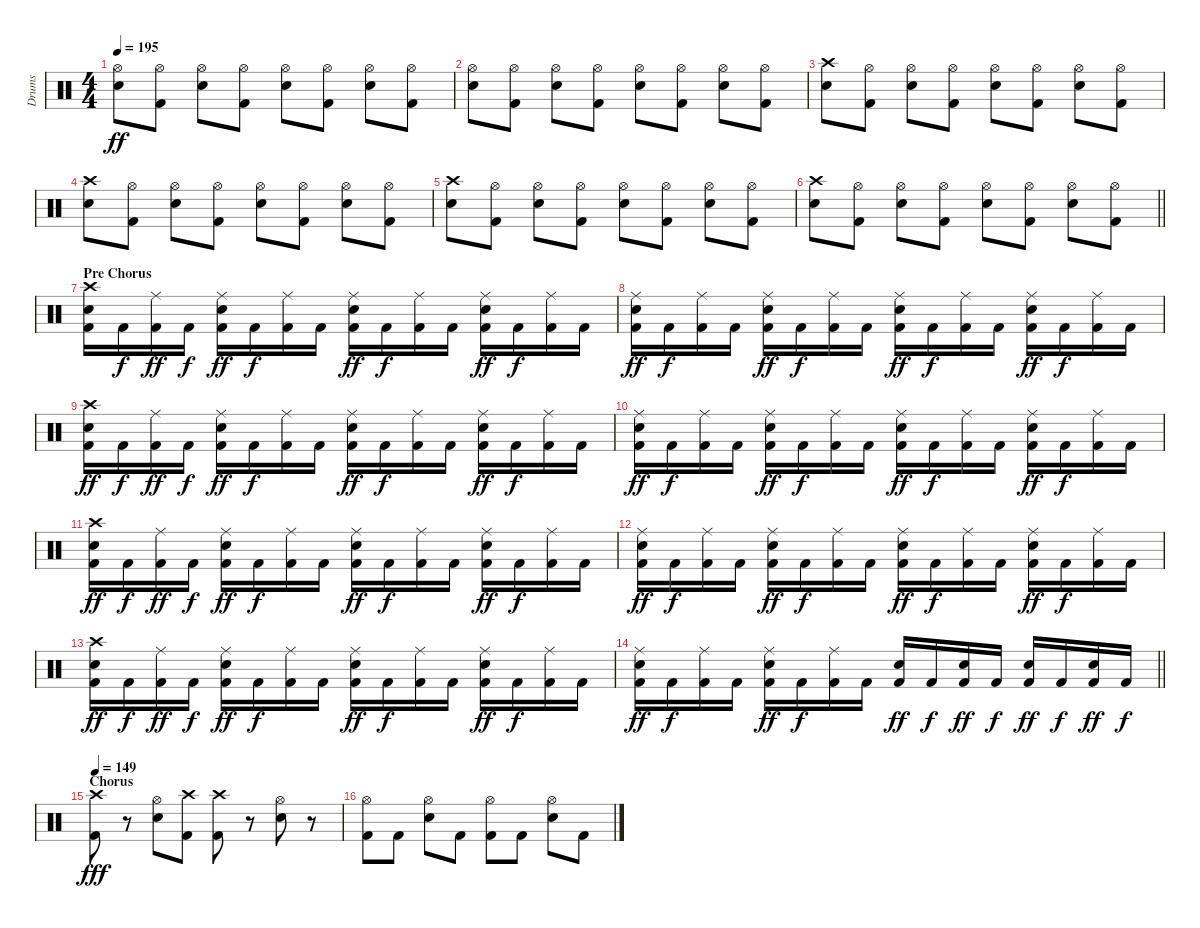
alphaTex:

\track ("Drums" "Drums") {instrument percussion}
\staff {score}
\articulation defaults
\ts (4 4)
\tempo 195
\clef neutral
\ks c
("Hi-Hat (open)" "Snare (hit) 2").8{dy ff} ("Hi-Hat (open)" "Kick (hit) 2").8 ("Hi-Hat (open)" "Snare (hit) 2").8 ("Hi-Hat (open)" "Kick (hit) 2").8 ("Hi-Hat (open)" "Snare (hit) 2").8 ("Hi-Hat (open)" "Kick (hit) 2").8 ("Hi-Hat (open)" "Snare (hit) 2").8 ("Hi-Hat (open)" "Kick (hit) 2").8 |
("Hi-Hat (open)" "Snare (hit) 2").8 ("Hi-Hat (open)" "Kick (hit) 2").8 ("Hi-Hat (open)" "Snare (hit) 2").8 ("Hi-Hat (open)" "Kick (hit) 2").8 ("Hi-Hat (open)" "Snare (hit) 2").8 ("Hi-Hat (open)" "Kick (hit) 2").8 ("Hi-Hat (open)" "Snare (hit) 2").8 ("Hi-Hat (open)" "Kick (hit) 2").8 |
("Crash high (hit)" "Snare (hit) 2").8 ("Hi-Hat (open)" "Kick (hit) 2").8 ("Hi-Hat (open)" "Snare (hit) 2").8 ("Hi-Hat (open)" "Kick (hit) 2").8 ("Hi-Hat (open)" "Snare (hit) 2").8 ("Hi-Hat (open)" "Kick (hit) 2").8 ("Hi-Hat (open)" "Snare (hit) 2").8 ("Hi-Hat (open)" "Kick (hit) 2").8 |
("Crash high (hit)" "Snare (hit) 2").8 ("Hi-Hat (open)" "Kick (hit) 2").8 ("Hi-Hat (open)" "Snare (hit) 2").8 ("Hi-Hat (open)" "Kick (hit) 2").8 ("Hi-Hat (open)" "Snare (hit) 2").8 ("Hi-Hat (open)" "Kick (hit) 2").8 ("Hi-Hat (open)" "Snare (hit) 2").8 ("Hi-Hat (open)" "Kick (hit) 2").8 |
("Crash high (hit)" "Snare (hit) 2").8 ("Hi-Hat (open)" "Kick (hit) 2").8 ("Hi-Hat (open)" "Snare (hit) 2").8 ("Hi-Hat (open)" "Kick (hit) 2").8 ("Hi-Hat (open)" "Snare (hit) 2").8 ("Hi-Hat (open)" "Kick (hit) 2").8 ("Hi-Hat (open)" "Snare (hit) 2").8 ("Hi-Hat (open)" "Kick (hit) 2").8 |
\barLineRight lightlight
("Crash high (hit)" "Snare (hit) 2").8 ("Hi-Hat (open)" "Kick (hit) 2").8 ("Hi-Hat (open)" "Snare (hit) 2").8 ("Hi-Hat (open)" "Kick (hit) 2").8 ("Hi-Hat (open)" "Snare (hit) 2").8 ("Hi-Hat (open)" "Kick (hit) 2").8 ("Hi-Hat (open)" "Snare (hit) 2").8 ("Hi-Hat (open)" "Kick (hit) 2").8 |
\section ("" "Pre Chorus")
("Crash high (hit)" "Snare (hit) 2" "Kick (hit) 2").16 "Kick (hit) 2".16{dy f} ("Ride (middle)" "Kick (hit) 2").16{dy ff} "Kick (hit) 2".16{dy f} ("Ride (middle)" "Snare (hit) 2" "Kick (hit) 2").16{dy ff} "Kick (hit) 2".16{dy f} ("Ride (middle)" "Kick (hit) 2").16 "Kick (hit) 2".16 ("Ride (middle)" "Snare (hit) 2" "Kick (hit) 2").16{dy ff} "Kick (hit) 2".16{dy f} ("Ride (middle)" "Kick (hit) 2").16 "Kick (hit) 2".16 ("Ride (middle)" "Snare (hit) 2" "Kick (hit) 2").16{dy ff} "Kick (hit) 2".16{dy f} ("Ride (middle)" "Kick (hit) 2").16 "Kick (hit) 2".16 |
("Ride (middle)" "Snare (hit) 2" "Kick (hit) 2").16{dy ff} "Kick (hit) 2".16{dy f} ("Ride (middle)" "Kick (hit) 2").16 "Kick (hit) 2".16 ("Ride (middle)" "Snare (hit) 2" "Kick (hit) 2").16{dy ff} "Kick (hit) 2".16{dy f} ("Ride (middle)" "Kick (hit) 2").16 "Kick (hit) 2".16 ("Ride (middle)" "Snare (hit) 2" "Kick (hit) 2").16{dy ff} "Kick (hit) 2".16{dy f} ("Ride (middle)" "Kick (hit) 2").16 "Kick (hit) 2".16 ("Ride (middle)" "Snare (hit) 2" "Kick (hit) 2").16{dy ff} "Kick (hit) 2".16{dy f} ("Ride (middle)" "Kick (hit) 2").16 "Kick (hit) 2".16 |
("Crash high (hit)" "Snare (hit) 2" "Kick (hit) 2").16{dy ff} "Kick (hit) 2".16{dy f} ("Ride (middle)" "Kick (hit) 2").16{dy ff} "Kick (hit) 2".16{dy f} ("Ride (middle)" "Snare (hit) 2" "Kick (hit) 2").16{dy ff} "Kick (hit) 2".16{dy f} ("Ride (middle)" "Kick (hit) 2").16 "Kick (hit) 2".16 ("Ride (middle)" "Snare (hit) 2" "Kick (hit) 2").16{dy ff} "Kick (hit) 2".16{dy f} ("Ride (middle)" "Kick (hit) 2").16 "Kick (hit) 2".16 ("Ride (middle)" "Snare (hit) 2" "Kick (hit) 2").16{dy ff} "Kick (hit) 2".16{dy f} ("Ride (middle)" "Kick (hit) 2").16 "Kick (hit) 2".16 |
("Ride (middle)" "Snare (hit) 2" "Kick (hit) 2").16{dy ff} "Kick (hit) 2".16{dy f} ("Ride (middle)" "Kick (hit) 2").16 "Kick (hit) 2".16 ("Ride (middle)" "Snare (hit) 2" "Kick (hit) 2").16{dy ff} "Kick (hit) 2".16{dy f} ("Ride (middle)" "Kick (hit) 2").16 "Kick (hit) 2".16 ("Ride (middle)" "Snare (hit) 2" "Kick (hit) 2").16{dy ff} "Kick (hit) 2".16{dy f} ("Ride (middle)" "Kick (hit) 2").16 "Kick (hit) 2".16 ("Ride (middle)" "Snare (hit) 2" "Kick (hit) 2").16{dy ff} "Kick (hit) 2".16{dy f} ("Ride (middle)" "Kick (hit) 2").16 "Kick (hit) 2".16 |
("Crash high (hit)" "Snare (hit) 2" "Kick (hit) 2").16{dy ff} "Kick (hit) 2".16{dy f} ("Ride (middle)" "Kick (hit) 2").16{dy ff} "Kick (hit) 2".16{dy f} ("Ride (middle)" "Snare (hit) 2" "Kick (hit) 2").16{dy ff} "Kick (hit) 2".16{dy f} ("Ride (middle)" "Kick (hit) 2").16 "Kick (hit) 2".16 ("Ride (middle)" "Snare (hit) 2" "Kick (hit) 2").16{dy ff} "Kick (hit) 2".16{dy f} ("Ride (middle)" "Kick (hit) 2").16 "Kick (hit) 2".16 ("Ride (middle)" "Snare (hit) 2" "Kick (hit) 2").16{dy ff} "Kick (hit) 2".16{dy f} ("Ride (middle)" "Kick (hit) 2").16 "Kick (hit) 2".16 |
("Ride (middle)" "Snare (hit) 2" "Kick (hit) 2").16{dy ff} "Kick (hit) 2".16{dy f} ("Ride (middle)" "Kick (hit) 2").16 "Kick (hit) 2".16 ("Ride (middle)" "Snare (hit) 2" "Kick (hit) 2").16{dy ff} "Kick (hit) 2".16{dy f} ("Ride (middle)" "Kick (hit) 2").16 "Kick (hit) 2".16 ("Ride (middle)" "Snare (hit) 2" "Kick (hit) 2").16{dy ff} "Kick (hit) 2".16{dy f} ("Ride (middle)" "Kick (hit) 2").16 "Kick (hit) 2".16 ("Ride (middle)" "Snare (hit) 2" "Kick (hit) 2").16{dy ff} "Kick (hit) 2".16{dy f} ("Ride (middle)" "Kick (hit) 2").16 "Kick (hit) 2".16 |
("Crash high (hit)" "Snare (hit) 2" "Kick (hit) 2").16{dy ff} "Kick (hit) 2".16{dy f} ("Ride (middle)" "Kick (hit) 2").16{dy ff} "Kick (hit) 2".16{dy f} ("Ride (middle)" "Snare (hit) 2" "Kick (hit) 2").16{dy ff} "Kick (hit) 2".16{dy f} ("Ride (middle)" "Kick (hit) 2").16 "Kick (hit) 2".16 ("Ride (middle)" "Snare (hit) 2" "Kick (hit) 2").16{dy ff} "Kick (hit) 2".16{dy f} ("Ride (middle)" "Kick (hit) 2").16 "Kick (hit) 2".16 ("Ride (middle)" "Snare (hit) 2" "Kick (hit) 2").16{dy ff} "Kick (hit) 2".16{dy f} ("Ride (middle)" "Kick (hit) 2").16 "Kick (hit) 2".16 |
\barLineRight lightlight
("Ride (middle)" "Snare (hit) 2" "Kick (hit) 2").16{dy ff} "Kick (hit) 2".16{dy f} ("Ride (middle)" "Kick (hit) 2").16 "Kick (hit) 2".16 ("Ride (middle)" "Snare (hit) 2" "Kick (hit) 2").16{dy ff} "Kick (hit) 2".16{dy f} ("Ride (middle)" "Kick (hit) 2").16 "Kick (hit) 2".16 ("Snare (hit) 2" "Kick (hit) 2").16{dy ff} "Kick (hit) 2".16{dy f} ("Snare (hit) 2" "Kick (hit) 2").16{dy ff} "Kick (hit) 2".16{dy f} ("Snare (hit) 2" "Kick (hit) 2").16{dy ff} "Kick (hit) 2".16{dy f} ("Snare (hit) 2" "Kick (hit) 2").16{dy ff} "Kick (hit) 2".16{dy f} |
\section ("" "Chorus")
\tempo 149
("Crash high (hit)" "Kick (hit) 2").8{dy fff} r.8 ("Hi-Hat (open)" "Snare (hit) 2").8 ("Crash high (hit)" "Kick (hit) 2").8 ("Crash high (hit)" "Kick (hit) 2").8 r.8 ("Hi-Hat (open)" "Snare (hit) 2").8 r.8 |
("Hi-Hat (open)" "Kick (hit) 2").8 "Kick (hit) 2".8 ("Hi-Hat (open)" "Snare (hit) 2").8 "Kick (hit) 2".8 ("Hi-Hat (open)" "Kick (hit) 2").8 "Kick (hit) 2".8 ("Hi-Hat (open)" "Snare (hit) 2").8 "Kick (hit) 2".8
